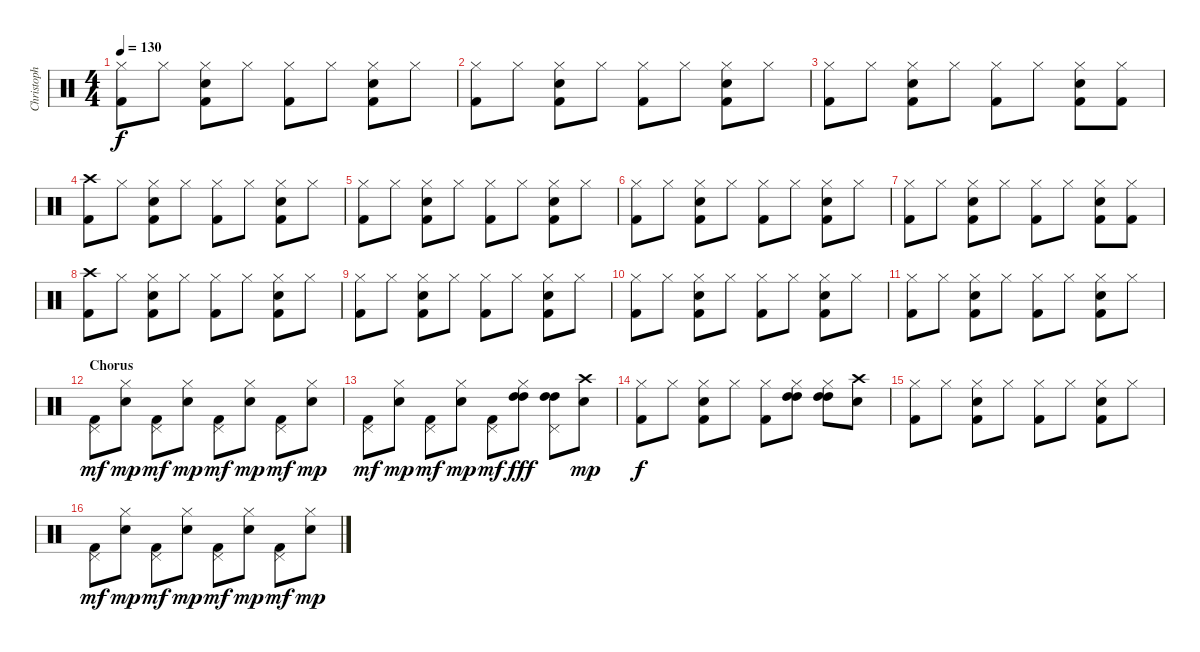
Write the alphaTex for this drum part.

\track ("Christoph" "Christoph") {instrument percussion}
\staff {score}
\articulation defaults
\ts (4 4)
\tempo 130
\clef neutral
\ks c
("Hi-Hat (closed)" "Kick (hit) 2").8{dy f} "Hi-Hat (closed)".8 ("Hi-Hat (closed)" "Electric Snare (hit)" "Kick (hit) 2").8 "Hi-Hat (closed)".8 ("Hi-Hat (closed)" "Kick (hit) 2").8 "Hi-Hat (closed)".8 ("Hi-Hat (closed)" "Electric Snare (hit)" "Kick (hit) 2").8 "Hi-Hat (closed)".8 |
("Hi-Hat (closed)" "Kick (hit) 2").8 "Hi-Hat (closed)".8 ("Hi-Hat (closed)" "Electric Snare (hit)" "Kick (hit) 2").8 "Hi-Hat (closed)".8 ("Hi-Hat (closed)" "Kick (hit) 2").8 "Hi-Hat (closed)".8 ("Hi-Hat (closed)" "Electric Snare (hit)" "Kick (hit) 2").8 "Hi-Hat (closed)".8 |
("Hi-Hat (closed)" "Kick (hit) 2").8 "Hi-Hat (closed)".8 ("Hi-Hat (closed)" "Electric Snare (hit)" "Kick (hit) 2").8 "Hi-Hat (closed)".8 ("Hi-Hat (closed)" "Kick (hit) 2").8 "Hi-Hat (closed)".8 ("Hi-Hat (closed)" "Electric Snare (hit)" "Kick (hit) 2").8 ("Hi-Hat (closed)" "Kick (hit) 2").8 |
("Crash high (hit)" "Kick (hit) 2").8 "Hi-Hat (closed)".8 ("Hi-Hat (closed)" "Electric Snare (hit)" "Kick (hit) 2").8 "Hi-Hat (closed)".8 ("Hi-Hat (closed)" "Kick (hit) 2").8 "Hi-Hat (closed)".8 ("Hi-Hat (closed)" "Electric Snare (hit)" "Kick (hit) 2").8 "Hi-Hat (closed)".8 |
("Hi-Hat (closed)" "Kick (hit) 2").8 "Hi-Hat (closed)".8 ("Hi-Hat (closed)" "Electric Snare (hit)" "Kick (hit) 2").8 "Hi-Hat (closed)".8 ("Hi-Hat (closed)" "Kick (hit) 2").8 "Hi-Hat (closed)".8 ("Hi-Hat (closed)" "Electric Snare (hit)" "Kick (hit) 2").8 "Hi-Hat (closed)".8 |
("Hi-Hat (closed)" "Kick (hit) 2").8 "Hi-Hat (closed)".8 ("Hi-Hat (closed)" "Electric Snare (hit)" "Kick (hit) 2").8 "Hi-Hat (closed)".8 ("Hi-Hat (closed)" "Kick (hit) 2").8 "Hi-Hat (closed)".8 ("Hi-Hat (closed)" "Electric Snare (hit)" "Kick (hit) 2").8 "Hi-Hat (closed)".8 |
("Hi-Hat (closed)" "Kick (hit) 2").8 "Hi-Hat (closed)".8 ("Hi-Hat (closed)" "Electric Snare (hit)" "Kick (hit) 2").8 "Hi-Hat (closed)".8 ("Hi-Hat (closed)" "Kick (hit) 2").8 "Hi-Hat (closed)".8 ("Hi-Hat (closed)" "Electric Snare (hit)" "Kick (hit) 2").8 ("Hi-Hat (closed)" "Kick (hit) 2").8 |
("Crash high (hit)" "Kick (hit) 2").8 "Hi-Hat (closed)".8 ("Hi-Hat (closed)" "Electric Snare (hit)" "Kick (hit) 2").8 "Hi-Hat (closed)".8 ("Hi-Hat (closed)" "Kick (hit) 2").8 "Hi-Hat (closed)".8 ("Hi-Hat (closed)" "Electric Snare (hit)" "Kick (hit) 2").8 "Hi-Hat (closed)".8 |
("Hi-Hat (closed)" "Kick (hit) 2").8 "Hi-Hat (closed)".8 ("Hi-Hat (closed)" "Electric Snare (hit)" "Kick (hit) 2").8 "Hi-Hat (closed)".8 ("Hi-Hat (closed)" "Kick (hit) 2").8 "Hi-Hat (closed)".8 ("Hi-Hat (closed)" "Electric Snare (hit)" "Kick (hit) 2").8 "Hi-Hat (closed)".8 |
("Hi-Hat (closed)" "Kick (hit) 2").8 "Hi-Hat (closed)".8 ("Hi-Hat (closed)" "Electric Snare (hit)" "Kick (hit) 2").8 "Hi-Hat (closed)".8 ("Hi-Hat (closed)" "Kick (hit) 2").8 "Hi-Hat (closed)".8 ("Hi-Hat (closed)" "Electric Snare (hit)" "Kick (hit) 2").8 "Hi-Hat (closed)".8 |
("Hi-Hat (closed)" "Kick (hit) 2").8 "Hi-Hat (closed)".8 ("Hi-Hat (closed)" "Electric Snare (hit)" "Kick (hit) 2").8 "Hi-Hat (closed)".8 ("Hi-Hat (closed)" "Kick (hit) 2").8 "Hi-Hat (closed)".8 ("Hi-Hat (closed)" "Electric Snare (hit)" "Kick (hit) 2").8 "Hi-Hat (closed)".8 |
\section ("" "Chorus")
("Pedal Hi-Hat (hit)" "Kick (hit) 2").8{dy mf} ("Hi-Hat (closed)" "Electric Snare (hit)").8{dy mp} ("Pedal Hi-Hat (hit)" "Kick (hit) 2").8{dy mf} ("Hi-Hat (closed)" "Electric Snare (hit)").8{dy mp} ("Pedal Hi-Hat (hit)" "Kick (hit) 2").8{dy mf} ("Hi-Hat (closed)" "Electric Snare (hit)").8{dy mp} ("Pedal Hi-Hat (hit)" "Kick (hit) 2").8{dy mf} ("Hi-Hat (closed)" "Electric Snare (hit)").8{dy mp} |
("Pedal Hi-Hat (hit)" "Kick (hit) 2").8{dy mf} ("Hi-Hat (closed)" "Electric Snare (hit)").8{dy mp} ("Pedal Hi-Hat (hit)" "Kick (hit) 2").8{dy mf} ("Hi-Hat (closed)" "Electric Snare (hit)").8{dy mp} ("Pedal Hi-Hat (hit)" "Kick (hit) 2").8{dy mf} ("Hi-Hat (closed)" "High Tom (hit)" "High Tom (hit)").8{dy fff} ("Pedal Hi-Hat (hit)" "High Tom (hit)" "High Tom (hit)").8 ("Crash high (hit)" "Electric Snare (hit)").8{dy mp} |
("Hi-Hat (closed)" "Kick (hit) 2").8{dy f} "Hi-Hat (closed)".8 ("Hi-Hat (closed)" "Electric Snare (hit)" "Kick (hit) 2").8 "Hi-Hat (closed)".8 ("Hi-Hat (closed)" "Kick (hit) 2").8 ("Hi-Hat (closed)" "High Tom (hit)" "High Tom (hit)").8 ("Hi-Hat (closed)" "High Tom (hit)" "High Tom (hit)").8 ("Crash high (hit)" "Electric Snare (hit)").8 |
("Hi-Hat (closed)" "Kick (hit) 2").8 "Hi-Hat (closed)".8 ("Hi-Hat (closed)" "Electric Snare (hit)" "Kick (hit) 2").8 "Hi-Hat (closed)".8 ("Hi-Hat (closed)" "Kick (hit) 2").8 "Hi-Hat (closed)".8 ("Hi-Hat (closed)" "Electric Snare (hit)" "Kick (hit) 2").8 "Hi-Hat (closed)".8 |
("Pedal Hi-Hat (hit)" "Kick (hit) 2").8{dy mf} ("Hi-Hat (closed)" "Electric Snare (hit)").8{dy mp} ("Pedal Hi-Hat (hit)" "Kick (hit) 2").8{dy mf} ("Hi-Hat (closed)" "Electric Snare (hit)").8{dy mp} ("Pedal Hi-Hat (hit)" "Kick (hit) 2").8{dy mf} ("Hi-Hat (closed)" "Electric Snare (hit)").8{dy mp} ("Pedal Hi-Hat (hit)" "Kick (hit) 2").8{dy mf} ("Hi-Hat (closed)" "Electric Snare (hit)").8{dy mp}
